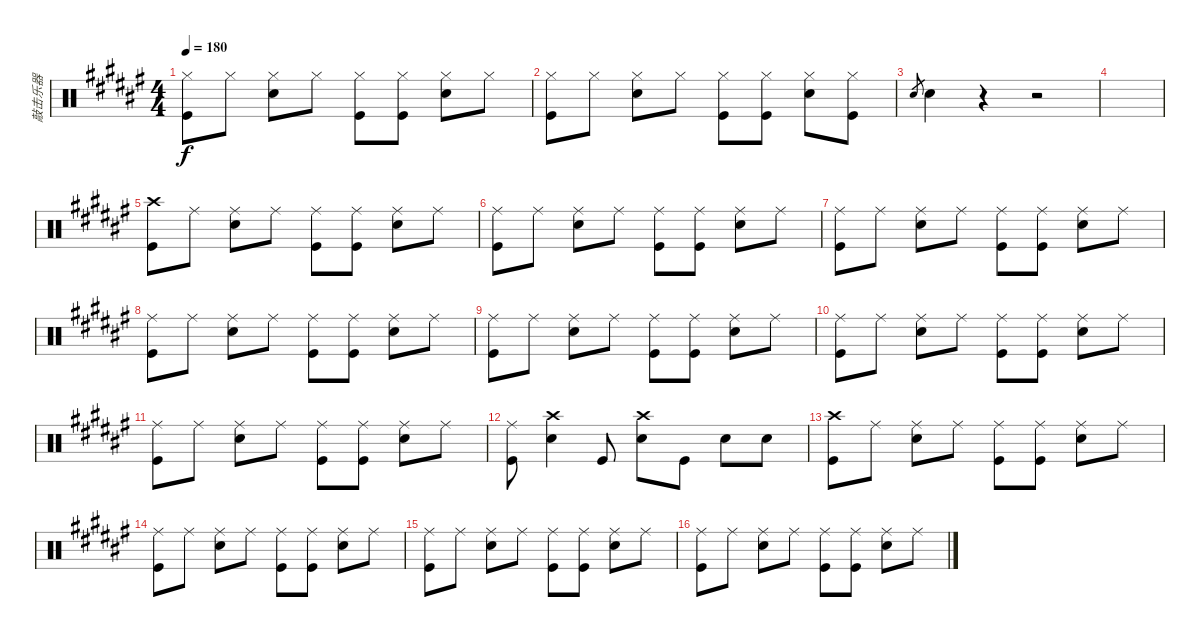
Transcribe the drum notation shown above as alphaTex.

\track ("敲击乐器" "敲击乐器") {instrument percussion}
\staff {score}
\articulation defaults
\ts (4 4)
\tempo 180
\clef neutral
\ks f#
("Hi-Hat (closed)" "Kick (hit)").8{dy f} "Hi-Hat (closed)".8 ("Hi-Hat (closed)" "Electric Snare (hit)").8 "Hi-Hat (closed)".8 ("Hi-Hat (closed)" "Kick (hit)").8 ("Hi-Hat (closed)" "Kick (hit)").8 ("Hi-Hat (closed)" "Electric Snare (hit)").8 "Hi-Hat (closed)".8 |
("Hi-Hat (closed)" "Kick (hit)").8 "Hi-Hat (closed)".8 ("Hi-Hat (closed)" "Electric Snare (hit)").8 "Hi-Hat (closed)".8 ("Hi-Hat (closed)" "Kick (hit)").8 ("Hi-Hat (closed)" "Kick (hit)").8 ("Hi-Hat (closed)" "Electric Snare (hit)").8 ("Hi-Hat (closed)" "Kick (hit)").8 |
"Electric Snare (hit)".8{gr} "Electric Snare (hit)".4 r.4 r.2 |
|
("Crash high (hit)" "Kick (hit)").8 "Ride (middle)".8 ("Ride (middle)" "Electric Snare (hit)").8 "Ride (middle)".8 ("Ride (middle)" "Kick (hit)").8 ("Ride (middle)" "Kick (hit)").8 ("Ride (middle)" "Electric Snare (hit)").8 "Ride (middle)".8 |
("Ride (middle)" "Kick (hit)").8 "Ride (middle)".8 ("Ride (middle)" "Electric Snare (hit)").8 "Ride (middle)".8 ("Ride (middle)" "Kick (hit)").8 ("Ride (middle)" "Kick (hit)").8 ("Ride (middle)" "Electric Snare (hit)").8 "Ride (middle)".8 |
("Ride (middle)" "Kick (hit)").8 "Ride (middle)".8 ("Ride (middle)" "Electric Snare (hit)").8 "Ride (middle)".8 ("Ride (middle)" "Kick (hit)").8 ("Ride (middle)" "Kick (hit)").8 ("Ride (middle)" "Electric Snare (hit)").8 "Ride (middle)".8 |
("Ride (middle)" "Kick (hit)").8 "Ride (middle)".8 ("Ride (middle)" "Electric Snare (hit)").8 "Ride (middle)".8 ("Ride (middle)" "Kick (hit)").8 ("Ride (middle)" "Kick (hit)").8 ("Ride (middle)" "Electric Snare (hit)").8 "Ride (middle)".8 |
("Ride (middle)" "Kick (hit)").8 "Ride (middle)".8 ("Ride (middle)" "Electric Snare (hit)").8 "Ride (middle)".8 ("Ride (middle)" "Kick (hit)").8 ("Ride (middle)" "Kick (hit)").8 ("Ride (middle)" "Electric Snare (hit)").8 "Ride (middle)".8 |
("Ride (middle)" "Kick (hit)").8 "Ride (middle)".8 ("Ride (middle)" "Electric Snare (hit)").8 "Ride (middle)".8 ("Ride (middle)" "Kick (hit)").8 ("Ride (middle)" "Kick (hit)").8 ("Ride (middle)" "Electric Snare (hit)").8 "Ride (middle)".8 |
("Ride (middle)" "Kick (hit)").8 "Ride (middle)".8 ("Ride (middle)" "Electric Snare (hit)").8 "Ride (middle)".8 ("Ride (middle)" "Kick (hit)").8 ("Ride (middle)" "Kick (hit)").8 ("Ride (middle)" "Electric Snare (hit)").8 "Ride (middle)".8 |
("Ride (middle)" "Kick (hit)").8 ("Crash high (hit)" "Electric Snare (hit)").4 "Kick (hit)".8 ("Crash high (hit)" "Electric Snare (hit)").8 "Kick (hit)".8 "Electric Snare (hit)".8 "Electric Snare (hit)".8 |
("Crash high (hit)" "Kick (hit)").8 "Ride (middle)".8 ("Ride (middle)" "Electric Snare (hit)").8 "Ride (middle)".8 ("Ride (middle)" "Kick (hit)").8 ("Ride (middle)" "Kick (hit)").8 ("Ride (middle)" "Electric Snare (hit)").8 "Ride (middle)".8 |
("Ride (middle)" "Kick (hit)").8 "Ride (middle)".8 ("Ride (middle)" "Electric Snare (hit)").8 "Ride (middle)".8 ("Ride (middle)" "Kick (hit)").8 ("Ride (middle)" "Kick (hit)").8 ("Ride (middle)" "Electric Snare (hit)").8 "Ride (middle)".8 |
("Ride (middle)" "Kick (hit)").8 "Ride (middle)".8 ("Ride (middle)" "Electric Snare (hit)").8 "Ride (middle)".8 ("Ride (middle)" "Kick (hit)").8 ("Ride (middle)" "Kick (hit)").8 ("Ride (middle)" "Electric Snare (hit)").8 "Ride (middle)".8 |
("Ride (middle)" "Kick (hit)").8 "Ride (middle)".8 ("Ride (middle)" "Electric Snare (hit)").8 "Ride (middle)".8 ("Ride (middle)" "Kick (hit)").8 ("Ride (middle)" "Kick (hit)").8 ("Ride (middle)" "Electric Snare (hit)").8 "Ride (middle)".8
